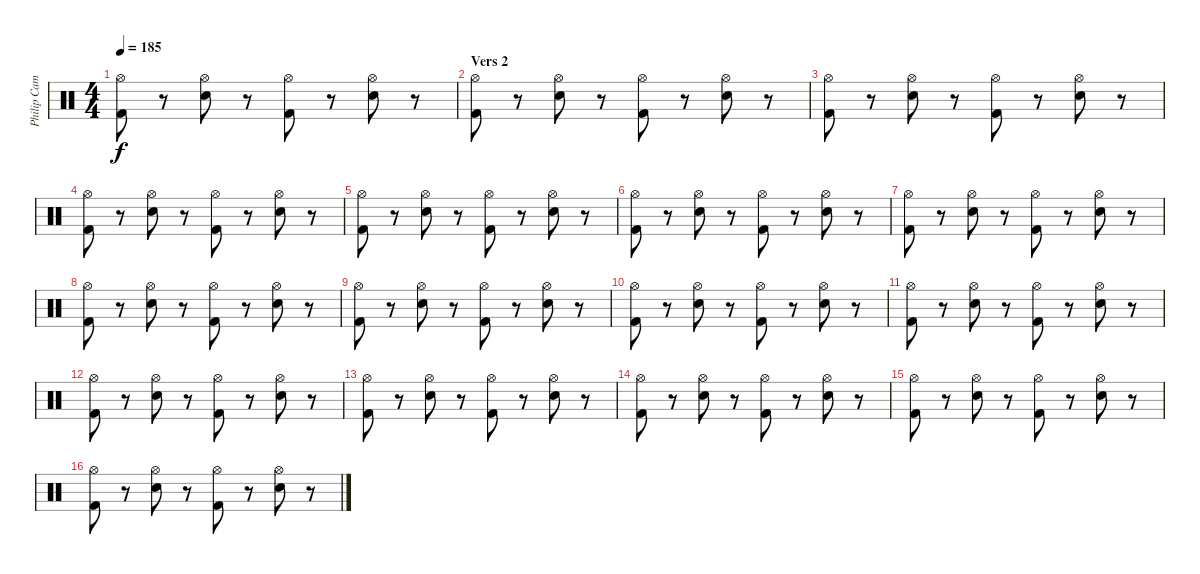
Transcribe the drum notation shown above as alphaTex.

\track ("Philip Campbell" "Philip Cam") {instrument percussion}
\staff {score}
\articulation defaults
\ts (4 4)
\tempo 185
\clef neutral
\ks c
("Hi-Hat (open)" "Kick (hit) 2").8{dy f} r.8 ("Hi-Hat (open)" "Electric Snare (hit)").8 r.8 ("Hi-Hat (open)" "Kick (hit) 2").8 r.8 ("Hi-Hat (open)" "Electric Snare (hit)").8 r.8 |
\section ("" "Vers 2")
("Hi-Hat (open)" "Kick (hit) 2").8 r.8 ("Hi-Hat (open)" "Electric Snare (hit)").8 r.8 ("Hi-Hat (open)" "Kick (hit) 2").8 r.8 ("Hi-Hat (open)" "Electric Snare (hit)").8 r.8 |
("Hi-Hat (open)" "Kick (hit) 2").8 r.8 ("Hi-Hat (open)" "Electric Snare (hit)").8 r.8 ("Hi-Hat (open)" "Kick (hit) 2").8 r.8 ("Hi-Hat (open)" "Electric Snare (hit)").8 r.8 |
("Hi-Hat (open)" "Kick (hit) 2").8 r.8 ("Hi-Hat (open)" "Electric Snare (hit)").8 r.8 ("Hi-Hat (open)" "Kick (hit) 2").8 r.8 ("Hi-Hat (open)" "Electric Snare (hit)").8 r.8 |
("Hi-Hat (open)" "Kick (hit) 2").8 r.8 ("Hi-Hat (open)" "Electric Snare (hit)").8 r.8 ("Hi-Hat (open)" "Kick (hit) 2").8 r.8 ("Hi-Hat (open)" "Electric Snare (hit)").8 r.8 |
("Hi-Hat (open)" "Kick (hit) 2").8 r.8 ("Hi-Hat (open)" "Electric Snare (hit)").8 r.8 ("Hi-Hat (open)" "Kick (hit) 2").8 r.8 ("Hi-Hat (open)" "Electric Snare (hit)").8 r.8 |
("Hi-Hat (open)" "Kick (hit) 2").8 r.8 ("Hi-Hat (open)" "Electric Snare (hit)").8 r.8 ("Hi-Hat (open)" "Kick (hit) 2").8 r.8 ("Hi-Hat (open)" "Electric Snare (hit)").8 r.8 |
("Hi-Hat (open)" "Kick (hit) 2").8 r.8 ("Hi-Hat (open)" "Electric Snare (hit)").8 r.8 ("Hi-Hat (open)" "Kick (hit) 2").8 r.8 ("Hi-Hat (open)" "Electric Snare (hit)").8 r.8 |
("Hi-Hat (open)" "Kick (hit) 2").8 r.8 ("Hi-Hat (open)" "Electric Snare (hit)").8 r.8 ("Hi-Hat (open)" "Kick (hit) 2").8 r.8 ("Hi-Hat (open)" "Electric Snare (hit)").8 r.8 |
("Hi-Hat (open)" "Kick (hit) 2").8 r.8 ("Hi-Hat (open)" "Electric Snare (hit)").8 r.8 ("Hi-Hat (open)" "Kick (hit) 2").8 r.8 ("Hi-Hat (open)" "Electric Snare (hit)").8 r.8 |
("Hi-Hat (open)" "Kick (hit) 2").8 r.8 ("Hi-Hat (open)" "Electric Snare (hit)").8 r.8 ("Hi-Hat (open)" "Kick (hit) 2").8 r.8 ("Hi-Hat (open)" "Electric Snare (hit)").8 r.8 |
("Hi-Hat (open)" "Kick (hit) 2").8 r.8 ("Hi-Hat (open)" "Electric Snare (hit)").8 r.8 ("Hi-Hat (open)" "Kick (hit) 2").8 r.8 ("Hi-Hat (open)" "Electric Snare (hit)").8 r.8 |
("Hi-Hat (open)" "Kick (hit) 2").8 r.8 ("Hi-Hat (open)" "Electric Snare (hit)").8 r.8 ("Hi-Hat (open)" "Kick (hit) 2").8 r.8 ("Hi-Hat (open)" "Electric Snare (hit)").8 r.8 |
("Hi-Hat (open)" "Kick (hit) 2").8 r.8 ("Hi-Hat (open)" "Electric Snare (hit)").8 r.8 ("Hi-Hat (open)" "Kick (hit) 2").8 r.8 ("Hi-Hat (open)" "Electric Snare (hit)").8 r.8 |
("Hi-Hat (open)" "Kick (hit) 2").8 r.8 ("Hi-Hat (open)" "Electric Snare (hit)").8 r.8 ("Hi-Hat (open)" "Kick (hit) 2").8 r.8 ("Hi-Hat (open)" "Electric Snare (hit)").8 r.8 |
("Hi-Hat (open)" "Kick (hit) 2").8 r.8 ("Hi-Hat (open)" "Electric Snare (hit)").8 r.8 ("Hi-Hat (open)" "Kick (hit) 2").8 r.8 ("Hi-Hat (open)" "Electric Snare (hit)").8 r.8
